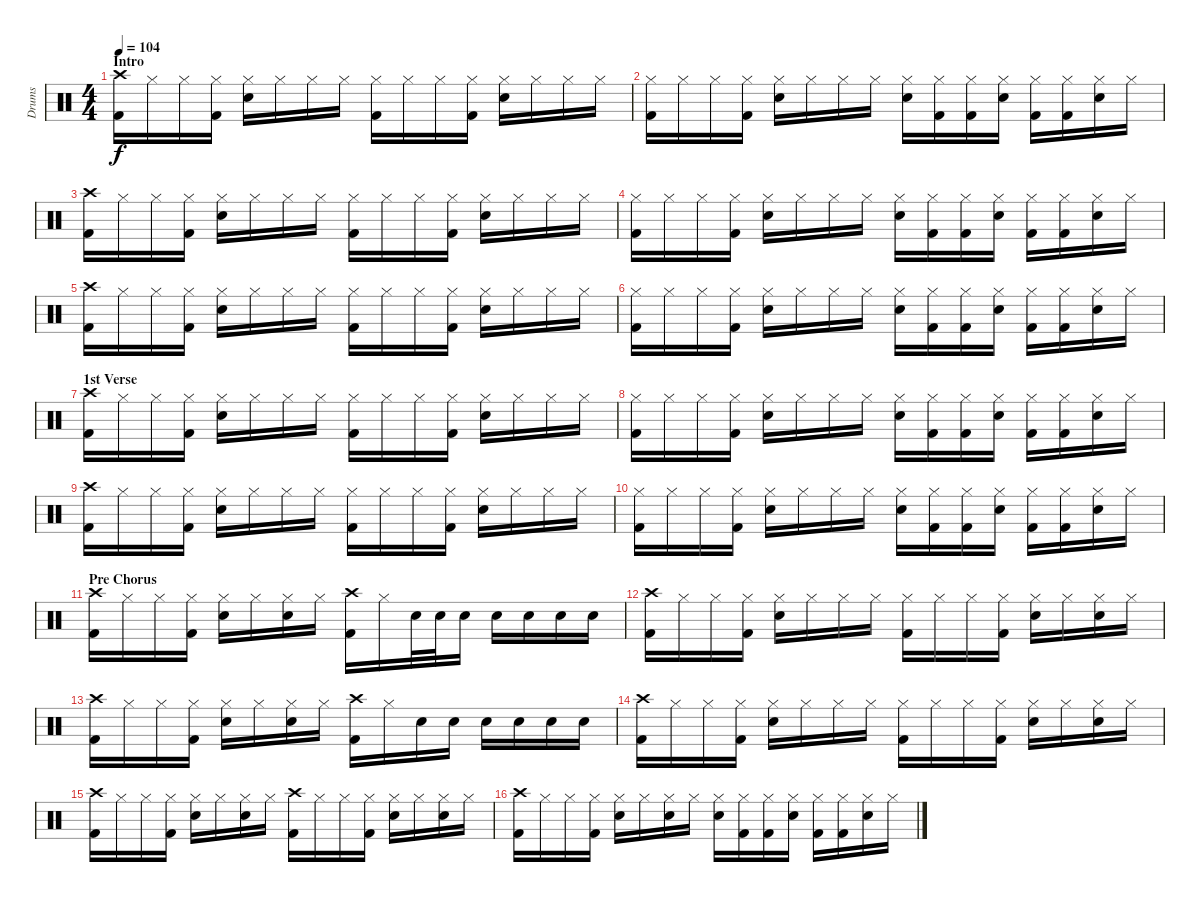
\track ("Drums" "Drums") {instrument percussion}
\staff {score}
\articulation defaults
\ts (4 4)
\section ("" "Intro")
\tempo 104
\clef neutral
\ks c
("Crash high (hit)" "Kick (hit) 2").16{dy f} "Hi-Hat (closed)".16 "Hi-Hat (closed)".16 ("Hi-Hat (closed)" "Kick (hit) 2").16 ("Hi-Hat (closed)" "Snare (hit) 2").16 "Hi-Hat (closed)".16 "Hi-Hat (closed)".16 "Hi-Hat (closed)".16 ("Hi-Hat (closed)" "Kick (hit) 2").16 "Hi-Hat (closed)".16 "Hi-Hat (closed)".16 ("Hi-Hat (closed)" "Kick (hit) 2").16 ("Hi-Hat (closed)" "Snare (hit) 2").16 "Hi-Hat (closed)".16 "Hi-Hat (closed)".16 "Hi-Hat (closed)".16 |
("Hi-Hat (closed)" "Kick (hit) 2").16 "Hi-Hat (closed)".16 "Hi-Hat (closed)".16 ("Hi-Hat (closed)" "Kick (hit) 2").16 ("Hi-Hat (closed)" "Snare (hit) 2").16 "Hi-Hat (closed)".16 "Hi-Hat (closed)".16 "Hi-Hat (closed)".16 ("Hi-Hat (closed)" "Snare (hit) 2").16 ("Hi-Hat (closed)" "Kick (hit) 2").16 ("Hi-Hat (closed)" "Kick (hit) 2").16 ("Hi-Hat (closed)" "Snare (hit) 2").16 ("Hi-Hat (closed)" "Kick (hit) 2").16 ("Hi-Hat (closed)" "Kick (hit) 2").16 ("Hi-Hat (closed)" "Snare (hit) 2").16 "Hi-Hat (closed)".16 |
("Crash high (hit)" "Kick (hit) 2").16 "Hi-Hat (closed)".16 "Hi-Hat (closed)".16 ("Hi-Hat (closed)" "Kick (hit) 2").16 ("Hi-Hat (closed)" "Snare (hit) 2").16 "Hi-Hat (closed)".16 "Hi-Hat (closed)".16 "Hi-Hat (closed)".16 ("Hi-Hat (closed)" "Kick (hit) 2").16 "Hi-Hat (closed)".16 "Hi-Hat (closed)".16 ("Hi-Hat (closed)" "Kick (hit) 2").16 ("Hi-Hat (closed)" "Snare (hit) 2").16 "Hi-Hat (closed)".16 "Hi-Hat (closed)".16 "Hi-Hat (closed)".16 |
("Hi-Hat (closed)" "Kick (hit) 2").16 "Hi-Hat (closed)".16 "Hi-Hat (closed)".16 ("Hi-Hat (closed)" "Kick (hit) 2").16 ("Hi-Hat (closed)" "Snare (hit) 2").16 "Hi-Hat (closed)".16 "Hi-Hat (closed)".16 "Hi-Hat (closed)".16 ("Hi-Hat (closed)" "Snare (hit) 2").16 ("Hi-Hat (closed)" "Kick (hit) 2").16 ("Hi-Hat (closed)" "Kick (hit) 2").16 ("Hi-Hat (closed)" "Snare (hit) 2").16 ("Hi-Hat (closed)" "Kick (hit) 2").16 ("Hi-Hat (closed)" "Kick (hit) 2").16 ("Hi-Hat (closed)" "Snare (hit) 2").16 "Hi-Hat (closed)".16 |
("Crash high (hit)" "Kick (hit) 2").16 "Hi-Hat (closed)".16 "Hi-Hat (closed)".16 ("Hi-Hat (closed)" "Kick (hit) 2").16 ("Hi-Hat (closed)" "Snare (hit) 2").16 "Hi-Hat (closed)".16 "Hi-Hat (closed)".16 "Hi-Hat (closed)".16 ("Hi-Hat (closed)" "Kick (hit) 2").16 "Hi-Hat (closed)".16 "Hi-Hat (closed)".16 ("Hi-Hat (closed)" "Kick (hit) 2").16 ("Hi-Hat (closed)" "Snare (hit) 2").16 "Hi-Hat (closed)".16 "Hi-Hat (closed)".16 "Hi-Hat (closed)".16 |
("Hi-Hat (closed)" "Kick (hit) 2").16 "Hi-Hat (closed)".16 "Hi-Hat (closed)".16 ("Hi-Hat (closed)" "Kick (hit) 2").16 ("Hi-Hat (closed)" "Snare (hit) 2").16 "Hi-Hat (closed)".16 "Hi-Hat (closed)".16 "Hi-Hat (closed)".16 ("Hi-Hat (closed)" "Snare (hit) 2").16 ("Hi-Hat (closed)" "Kick (hit) 2").16 ("Hi-Hat (closed)" "Kick (hit) 2").16 ("Hi-Hat (closed)" "Snare (hit) 2").16 ("Hi-Hat (closed)" "Kick (hit) 2").16 ("Hi-Hat (closed)" "Kick (hit) 2").16 ("Hi-Hat (closed)" "Snare (hit) 2").16 "Hi-Hat (closed)".16 |
\section ("" "1st Verse")
("Crash high (hit)" "Kick (hit) 2").16 "Hi-Hat (closed)".16 "Hi-Hat (closed)".16 ("Hi-Hat (closed)" "Kick (hit) 2").16 ("Hi-Hat (closed)" "Snare (hit) 2").16 "Hi-Hat (closed)".16 "Hi-Hat (closed)".16 "Hi-Hat (closed)".16 ("Hi-Hat (closed)" "Kick (hit) 2").16 "Hi-Hat (closed)".16 "Hi-Hat (closed)".16 ("Hi-Hat (closed)" "Kick (hit) 2").16 ("Hi-Hat (closed)" "Snare (hit) 2").16 "Hi-Hat (closed)".16 "Hi-Hat (closed)".16 "Hi-Hat (closed)".16 |
("Hi-Hat (closed)" "Kick (hit) 2").16 "Hi-Hat (closed)".16 "Hi-Hat (closed)".16 ("Hi-Hat (closed)" "Kick (hit) 2").16 ("Hi-Hat (closed)" "Snare (hit) 2").16 "Hi-Hat (closed)".16 "Hi-Hat (closed)".16 "Hi-Hat (closed)".16 ("Hi-Hat (closed)" "Snare (hit) 2").16 ("Hi-Hat (closed)" "Kick (hit) 2").16 ("Hi-Hat (closed)" "Kick (hit) 2").16 ("Hi-Hat (closed)" "Snare (hit) 2").16 ("Hi-Hat (closed)" "Kick (hit) 2").16 ("Hi-Hat (closed)" "Kick (hit) 2").16 ("Hi-Hat (closed)" "Snare (hit) 2").16 "Hi-Hat (closed)".16 |
("Crash high (hit)" "Kick (hit) 2").16 "Hi-Hat (closed)".16 "Hi-Hat (closed)".16 ("Hi-Hat (closed)" "Kick (hit) 2").16 ("Hi-Hat (closed)" "Snare (hit) 2").16 "Hi-Hat (closed)".16 "Hi-Hat (closed)".16 "Hi-Hat (closed)".16 ("Hi-Hat (closed)" "Kick (hit) 2").16 "Hi-Hat (closed)".16 "Hi-Hat (closed)".16 ("Hi-Hat (closed)" "Kick (hit) 2").16 ("Hi-Hat (closed)" "Snare (hit) 2").16 "Hi-Hat (closed)".16 "Hi-Hat (closed)".16 "Hi-Hat (closed)".16 |
("Hi-Hat (closed)" "Kick (hit) 2").16 "Hi-Hat (closed)".16 "Hi-Hat (closed)".16 ("Hi-Hat (closed)" "Kick (hit) 2").16 ("Hi-Hat (closed)" "Snare (hit) 2").16 "Hi-Hat (closed)".16 "Hi-Hat (closed)".16 "Hi-Hat (closed)".16 ("Hi-Hat (closed)" "Snare (hit) 2").16 ("Hi-Hat (closed)" "Kick (hit) 2").16 ("Hi-Hat (closed)" "Kick (hit) 2").16 ("Hi-Hat (closed)" "Snare (hit) 2").16 ("Hi-Hat (closed)" "Kick (hit) 2").16 ("Hi-Hat (closed)" "Kick (hit) 2").16 ("Hi-Hat (closed)" "Snare (hit) 2").16 "Hi-Hat (closed)".16 |
\section ("" "Pre Chorus")
("Crash high (hit)" "Kick (hit) 2").16 "Hi-Hat (closed)".16 "Hi-Hat (closed)".16 ("Hi-Hat (closed)" "Kick (hit) 2").16 ("Hi-Hat (closed)" "Snare (hit) 2").16 "Hi-Hat (closed)".16 ("Hi-Hat (closed)" "Snare (hit) 2").16 "Hi-Hat (closed)".16 ("Crash high (hit)" "Kick (hit) 2").16 "Hi-Hat (closed)".16 "Snare (hit) 2".32 "Snare (hit) 2".32 "Snare (hit) 2".16 "Snare (hit) 2".16 "Snare (hit) 2".16 "Snare (hit) 2".16 "Snare (hit) 2".16 |
("Crash high (hit)" "Kick (hit) 2").16 "Hi-Hat (closed)".16 "Hi-Hat (closed)".16 ("Hi-Hat (closed)" "Kick (hit) 2").16 ("Hi-Hat (closed)" "Snare (hit) 2").16 "Hi-Hat (closed)".16 "Hi-Hat (closed)".16 "Hi-Hat (closed)".16 ("Hi-Hat (closed)" "Kick (hit) 2").16 "Hi-Hat (closed)".16 "Hi-Hat (closed)".16 ("Hi-Hat (closed)" "Kick (hit) 2").16 ("Hi-Hat (closed)" "Snare (hit) 2").16 "Hi-Hat (closed)".16 ("Hi-Hat (closed)" "Snare (hit) 2").16 "Hi-Hat (closed)".16 |
("Crash high (hit)" "Kick (hit) 2").16 "Hi-Hat (closed)".16 "Hi-Hat (closed)".16 ("Hi-Hat (closed)" "Kick (hit) 2").16 ("Hi-Hat (closed)" "Snare (hit) 2").16 "Hi-Hat (closed)".16 ("Hi-Hat (closed)" "Snare (hit) 2").16 "Hi-Hat (closed)".16 ("Crash high (hit)" "Kick (hit) 2").16 "Hi-Hat (closed)".16 "Snare (hit) 2".16 "Snare (hit) 2".16 "Snare (hit) 2".16 "Snare (hit) 2".16 "Snare (hit) 2".16 "Snare (hit) 2".16 |
("Crash high (hit)" "Kick (hit) 2").16 "Hi-Hat (closed)".16 "Hi-Hat (closed)".16 ("Hi-Hat (closed)" "Kick (hit) 2").16 ("Hi-Hat (closed)" "Snare (hit) 2").16 "Hi-Hat (closed)".16 "Hi-Hat (closed)".16 "Hi-Hat (closed)".16 ("Hi-Hat (closed)" "Kick (hit) 2").16 "Hi-Hat (closed)".16 "Hi-Hat (closed)".16 ("Hi-Hat (closed)" "Kick (hit) 2").16 ("Hi-Hat (closed)" "Snare (hit) 2").16 "Hi-Hat (closed)".16 ("Hi-Hat (closed)" "Snare (hit) 2").16 "Hi-Hat (closed)".16 |
("Crash high (hit)" "Kick (hit) 2").16 "Hi-Hat (closed)".16 "Hi-Hat (closed)".16 ("Hi-Hat (closed)" "Kick (hit) 2").16 ("Hi-Hat (closed)" "Snare (hit) 2").16 "Hi-Hat (closed)".16 ("Hi-Hat (closed)" "Snare (hit) 2").16 "Hi-Hat (closed)".16 ("Crash high (hit)" "Kick (hit) 2").16 "Hi-Hat (closed)".16 "Hi-Hat (closed)".16 ("Hi-Hat (closed)" "Kick (hit) 2").16 ("Hi-Hat (closed)" "Snare (hit) 2").16 "Hi-Hat (closed)".16 ("Hi-Hat (closed)" "Snare (hit) 2").16 "Hi-Hat (closed)".16 |
("Crash high (hit)" "Kick (hit) 2").16 "Hi-Hat (closed)".16 "Hi-Hat (closed)".16 ("Hi-Hat (closed)" "Kick (hit) 2").16 ("Hi-Hat (closed)" "Snare (hit) 2").16 "Hi-Hat (closed)".16 ("Hi-Hat (closed)" "Snare (hit) 2").16 "Hi-Hat (closed)".16 ("Hi-Hat (closed)" "Snare (hit) 2").16 ("Hi-Hat (closed)" "Kick (hit) 2").16 ("Hi-Hat (closed)" "Kick (hit) 2").16 ("Hi-Hat (closed)" "Snare (hit) 2").16 ("Hi-Hat (closed)" "Kick (hit) 2").16 ("Hi-Hat (closed)" "Kick (hit) 2").16 ("Hi-Hat (closed)" "Snare (hit) 2").16 "Hi-Hat (closed)".16
